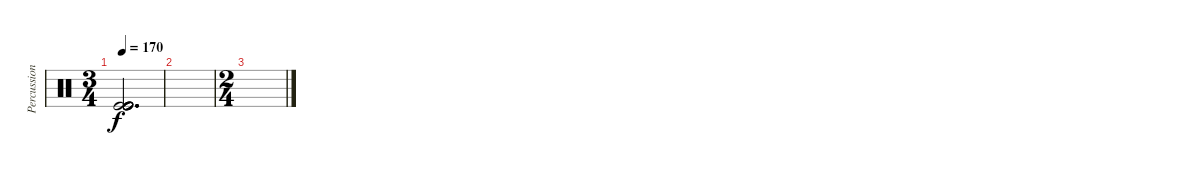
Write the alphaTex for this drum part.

\track ("Percussion" "Percussion") {instrument percussion}
\staff {score}
\articulation defaults
\ts (3 4)
\tempo 170
\clef neutral
\ks c
("Kick (hit)" "Kick (hit)" "Kick (hit)" "Kick (hit)" "Kick (hit)" "Kick (hit)").2{d dy f} |
|
\ts (2 4)
